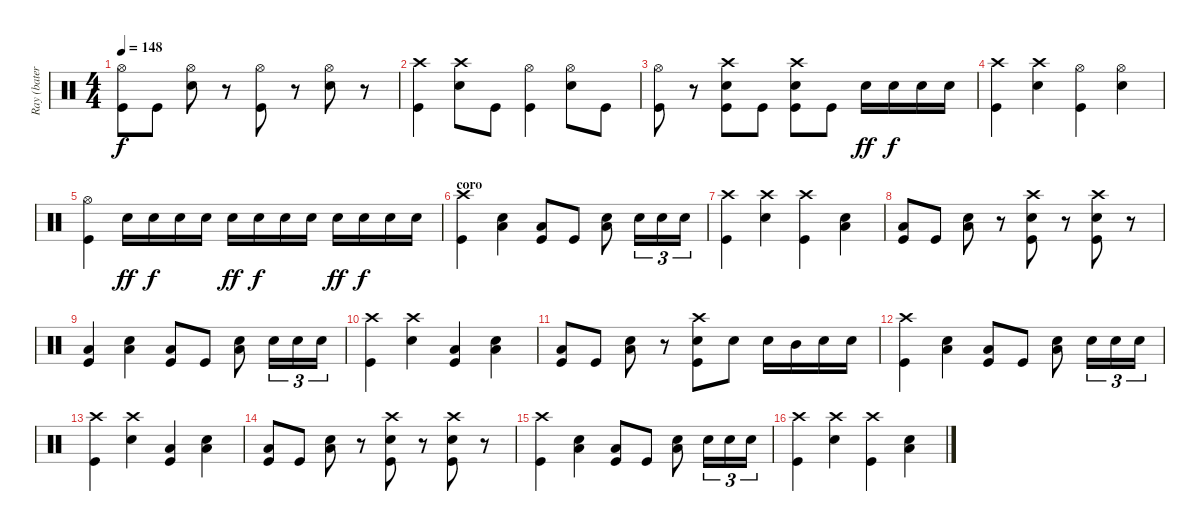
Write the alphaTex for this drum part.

\track ("Ray (batería)" "Ray (bater") {instrument percussion}
\staff {score}
\articulation defaults
\ts (4 4)
\tempo 148
\clef neutral
\ks c
("Hi-Hat (open)" "Kick (hit)").8{dy f} "Kick (hit)".8 ("Hi-Hat (open)" "Snare (hit) 2").8 r.8 ("Hi-Hat (open)" "Kick (hit)").8 r.8 ("Hi-Hat (open)" "Snare (hit) 2").8 r.8 |
("Crash high (hit)" "Kick (hit)").4 ("Crash high (hit)" "Snare (hit) 2").8 "Kick (hit)".8 ("Hi-Hat (open)" "Kick (hit)").4 ("Hi-Hat (open)" "Snare (hit) 2").8 "Kick (hit)".8 |
("Hi-Hat (open)" "Kick (hit)").8 r.8 ("Crash high (hit)" "Snare (hit) 2" "Kick (hit)").8 "Kick (hit)".8 ("Crash high (hit)" "Snare (hit) 2" "Kick (hit)").8 "Kick (hit)".8 "Snare (hit) 2".16{dy ff} "Snare (hit) 2".16{dy f} "Snare (hit) 2".16 "Snare (hit) 2".16 |
("Crash high (hit)" "Kick (hit)").4 ("Crash high (hit)" "Snare (hit) 2").4 ("Hi-Hat (open)" "Kick (hit)").4 ("Hi-Hat (open)" "Snare (hit) 2").4 |
("Hi-Hat (open)" "Kick (hit)").4 "Snare (hit) 2".16{dy ff} "Snare (hit) 2".16{dy f} "Snare (hit) 2".16 "Snare (hit) 2".16 "Snare (hit) 2".16{dy ff} "Snare (hit) 2".16{dy f} "Snare (hit) 2".16 "Snare (hit) 2".16 "Snare (hit) 2".16{dy ff} "Snare (hit) 2".16{dy f} "Snare (hit) 2".16 "Snare (hit) 2".16 |
\section ("" "coro")
("Crash high (hit)" "Kick (hit)").4 ("Snare (hit) 2" "Low Tom (hit)").4 ("Low Tom (hit)" "Kick (hit)").8 "Kick (hit)".8 ("Snare (hit) 2" "Low Tom (hit)").8 "Snare (hit) 2".16{tu (3 2)} "Snare (hit) 2".16{tu (3 2)} "Snare (hit) 2".16{tu (3 2)} |
("Crash high (hit)" "Kick (hit)").4 ("Crash high (hit)" "Snare (hit) 2").4 ("Crash high (hit)" "Kick (hit)").4 ("Snare (hit) 2" "Low Tom (hit)").4 |
("Low Tom (hit)" "Kick (hit)").8 "Kick (hit)".8 ("Snare (hit) 2" "Low Tom (hit)").8 r.8 ("Crash high (hit)" "Snare (hit) 2" "Kick (hit)").8 r.8 ("Crash high (hit)" "Snare (hit) 2" "Kick (hit)").8 r.8 |
("Low Tom (hit)" "Kick (hit)").4 ("Snare (hit) 2" "Low Tom (hit)").4 ("Low Tom (hit)" "Kick (hit)").8 "Kick (hit)".8 ("Snare (hit) 2" "Low Tom (hit)").8 "Snare (hit) 2".16{tu (3 2)} "Snare (hit) 2".16{tu (3 2)} "Snare (hit) 2".16{tu (3 2)} |
("Crash high (hit)" "Kick (hit)").4 ("Crash high (hit)" "Snare (hit) 2").4 ("Low Tom (hit)" "Kick (hit)").4 ("Snare (hit) 2" "Low Tom (hit)").4 |
("Low Tom (hit)" "Kick (hit)").8 "Kick (hit)".8 ("Snare (hit) 2" "Low Tom (hit)").8 r.8 ("Crash high (hit)" "Snare (hit) 2" "Kick (hit)").8 "Snare (hit) 2".8 "Snare (hit) 2".16 "Mid Tom (hit)".16 "Snare (hit) 2".16 "Snare (hit) 2".16 |
("Crash high (hit)" "Kick (hit)").4 ("Snare (hit) 2" "Low Tom (hit)").4 ("Low Tom (hit)" "Kick (hit)").8 "Kick (hit)".8 ("Snare (hit) 2" "Low Tom (hit)").8 "Snare (hit) 2".16{tu (3 2)} "Snare (hit) 2".16{tu (3 2)} "Snare (hit) 2".16{tu (3 2)} |
("Crash high (hit)" "Kick (hit)").4 ("Crash high (hit)" "Snare (hit) 2").4 ("Low Tom (hit)" "Kick (hit)").4 ("Snare (hit) 2" "Low Tom (hit)").4 |
("Low Tom (hit)" "Kick (hit)").8 "Kick (hit)".8 ("Snare (hit) 2" "Low Tom (hit)").8 r.8 ("Crash high (hit)" "Snare (hit) 2" "Kick (hit)").8 r.8 ("Crash high (hit)" "Snare (hit) 2" "Kick (hit)").8 r.8 |
("Crash high (hit)" "Kick (hit)").4 ("Snare (hit) 2" "Low Tom (hit)").4 ("Low Tom (hit)" "Kick (hit)").8 "Kick (hit)".8 ("Snare (hit) 2" "Low Tom (hit)").8 "Snare (hit) 2".16{tu (3 2)} "Snare (hit) 2".16{tu (3 2)} "Snare (hit) 2".16{tu (3 2)} |
("Crash high (hit)" "Kick (hit)").4 ("Crash high (hit)" "Snare (hit) 2").4 ("Crash high (hit)" "Kick (hit)").4 ("Snare (hit) 2" "Low Tom (hit)").4
